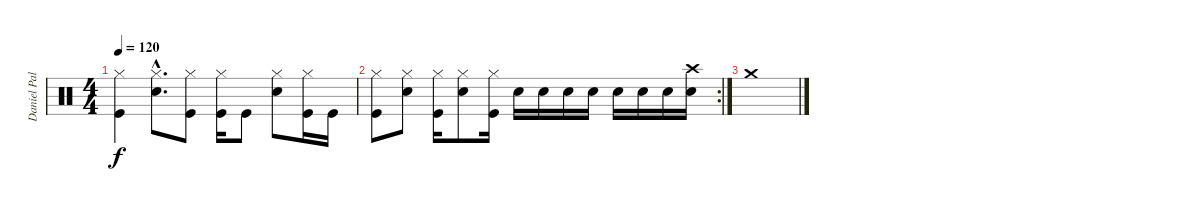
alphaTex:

\track ("Daniel Pal" "Daniel Pal") {instrument percussion}
\staff {score}
\articulation defaults
\ts (4 4)
\tempo 120
\clef neutral
\ks c
("Hi-Hat (closed)" "Kick (hit)").4{dy f} ("Hi-Hat (closed)"{hac} "Electric Snare (hit)"{hac}).8{d} ("Hi-Hat (closed)" "Kick (hit)").8 ("Hi-Hat (closed)" "Kick (hit)").16 "Kick (hit)".8 ("Hi-Hat (closed)" "Electric Snare (hit)").8 ("Hi-Hat (closed)" "Kick (hit)").16 "Kick (hit)".16 |
\rc 2
("Hi-Hat (closed)" "Kick (hit)").8 ("Hi-Hat (closed)" "Electric Snare (hit)").8 ("Hi-Hat (closed)" "Kick (hit)").16 ("Hi-Hat (closed)" "Electric Snare (hit)").8 ("Hi-Hat (closed)" "Kick (hit)").16 "Electric Snare (hit)".16 "Electric Snare (hit)".16 "Electric Snare (hit)".16 "Electric Snare (hit)".16 "Electric Snare (hit)".16 "Electric Snare (hit)".16 "Electric Snare (hit)".16 ("Crash high (hit)" "Electric Snare (hit)").16 |
"Crash medium (hit)".1
